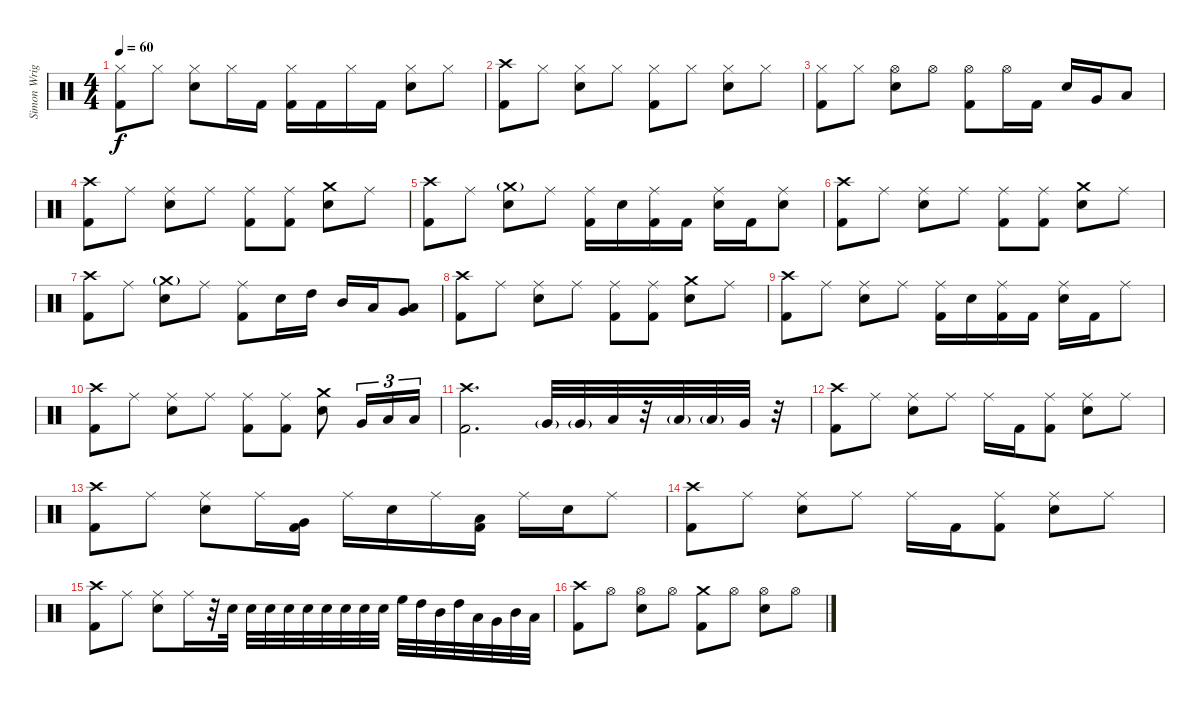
\track ("Simon Wright" "Simon Wrig") {instrument percussion}
\staff {score}
\articulation defaults
\ts (4 4)
\tempo 60
\clef neutral
\ks c
("Hi-Hat (closed)" "Kick (hit) 2").8{dy f} "Hi-Hat (closed)".8 ("Hi-Hat (closed)" "Snare (hit) 2").8 "Hi-Hat (closed)".16 "Kick (hit) 2".16 ("Hi-Hat (closed)" "Kick (hit) 2").16 "Kick (hit) 2".16 "Hi-Hat (closed)".16 "Kick (hit) 2".16 ("Hi-Hat (closed)" "Snare (hit) 2").8 "Hi-Hat (closed)".8 |
("Crash high (hit)" "Kick (hit) 2").8 "Hi-Hat (closed)".8 ("Hi-Hat (closed)" "Snare (hit) 2").8 "Hi-Hat (closed)".8 ("Hi-Hat (closed)" "Kick (hit) 2").8 "Hi-Hat (closed)".8 ("Hi-Hat (closed)" "Snare (hit) 2").8 "Hi-Hat (closed)".8 |
("Hi-Hat (closed)" "Kick (hit) 2").8 "Hi-Hat (closed)".8 ("Hi-Hat (open)" "Snare (hit) 2").8 "Hi-Hat (open)".8 ("Hi-Hat (open)" "Kick (hit) 2").8 "Hi-Hat (open)".16 "Kick (hit) 2".16 "Snare (hit) 2".16 "Very Low Tom (hit)".16 "Low Floor Tom (hit)".8 |
("Crash high (hit)" "Kick (hit) 2").8 "Ride (middle)".8 ("Ride (middle)" "Snare (hit) 2").8 "Ride (middle)".8 ("Ride (middle)" "Kick (hit) 2").8 ("Ride (middle)" "Kick (hit) 2").8 ("Crash medium (hit)" "Snare (hit) 2").8 "Ride (middle)".8 |
("Crash high (hit)" "Kick (hit) 2").8 "Ride (middle)".8 ("Crash medium (hit)"{g} "Snare (hit) 2").8 "Ride (middle)".8 ("Ride (middle)" "Kick (hit) 2").16 "Snare (hit) 2".16 ("Ride (middle)" "Kick (hit) 2").16 "Kick (hit) 2".16 ("Ride (middle)" "Snare (hit) 2").16 "Kick (hit) 2".16 ("Ride (middle)" "Snare (hit) 2").8 |
("Crash high (hit)" "Kick (hit) 2").8 "Ride (middle)".8 ("Ride (middle)" "Snare (hit) 2").8 "Ride (middle)".8 ("Ride (middle)" "Kick (hit) 2").8 ("Ride (middle)" "Kick (hit) 2").8 ("Crash medium (hit)" "Snare (hit) 2").8 "Ride (middle)".8 |
("Crash high (hit)" "Kick (hit) 2").8 "Ride (middle)".8 ("Crash medium (hit)"{g} "Snare (hit) 2").8 "Ride (middle)".8 ("Ride (middle)" "Kick (hit) 2").8 "Snare (hit) 2".16 "High Tom (hit)".16 "Mid Tom (hit)".16 "Low Tom (hit)".16 ("Very Low Tom (hit)" "Low Floor Tom (hit)").8 |
("Crash high (hit)" "Kick (hit) 2").8 "Ride (middle)".8 ("Ride (middle)" "Snare (hit) 2").8 "Ride (middle)".8 ("Ride (middle)" "Kick (hit) 2").8 ("Ride (middle)" "Kick (hit) 2").8 ("Crash medium (hit)" "Snare (hit) 2").8 "Ride (middle)".8 |
("Crash high (hit)" "Kick (hit) 2").8 "Ride (middle)".8 ("Ride (middle)" "Snare (hit) 2").8 "Ride (middle)".8 ("Ride (middle)" "Kick (hit) 2").16 "Snare (hit) 2".16 ("Ride (middle)" "Kick (hit) 2").16 "Kick (hit) 2".16 ("Ride (middle)" "Snare (hit) 2").16 "Kick (hit) 2".16 "Ride (middle)".8 |
("Crash high (hit)" "Kick (hit) 2").8 "Ride (middle)".8 ("Ride (middle)" "Snare (hit) 2").8 "Ride (middle)".8 ("Ride (middle)" "Kick (hit) 2").8 ("Ride (middle)" "Kick (hit) 2").8 ("Crash medium (hit)" "Snare (hit) 2").8 "Very Low Tom (hit)".16{tu (3 2)} "Low Tom (hit)".16{tu (3 2)} "Low Floor Tom (hit)".16{tu (3 2)} |
("Crash high (hit)" "Kick (hit) 2").2{d} "Very Low Tom (hit)"{g}.32 "Very Low Tom (hit)"{g}.32 "Low Tom (hit)".32 r.32 "Low Floor Tom (hit)"{g}.32 "Low Floor Tom (hit)"{g}.32 "Very Low Tom (hit)".32 r.32 |
("Crash high (hit)" "Kick (hit) 2").8 "Ride (middle)".8 ("Ride (middle)" "Snare (hit) 2").8 "Ride (middle)".8 "Ride (middle)".16 "Kick (hit) 2".16 ("Ride (middle)" "Kick (hit) 2").8 ("Ride (middle)" "Snare (hit) 2").8 "Ride (middle)".8 |
("Crash high (hit)" "Kick (hit) 2").8 "Ride (middle)".8 ("Ride (middle)" "Snare (hit) 2").8 "Ride (middle)".16 ("Very Low Tom (hit)" "Kick (hit) 2").16 "Ride (middle)".16 "Snare (hit) 2".16 "Ride (middle)".16 ("Low Tom (hit)" "Kick (hit) 2").16 "Ride (middle)".16 "Snare (hit) 2".16 "Ride (middle)".8 |
("Crash high (hit)" "Kick (hit) 2").8 "Ride (middle)".8 ("Ride (middle)" "Snare (hit) 2").8 "Ride (middle)".8 "Ride (middle)".16 "Kick (hit) 2".16 ("Ride (middle)" "Kick (hit) 2").8 ("Ride (middle)" "Snare (hit) 2").8 "Ride (middle)".8 |
("Crash high (hit)" "Kick (hit) 2").8 "Ride (middle)".8 ("Ride (middle)" "Snare (hit) 2").8 "Ride (middle)".16 r.32 "Snare (hit) 2".32 "Snare (hit) 2".32 "Snare (hit) 2".32 "Snare (hit) 2".32 "Snare (hit) 2".32 "Snare (hit) 2".32 "Snare (hit) 2".32 "Snare (hit) 2".32 "Snare (hit) 2".32 "High Floor Tom (hit)".32 "High Tom (hit)".32 "Mid Tom (hit)".32 "High Tom (hit)".32 "Low Tom (hit)".32 "Very Low Tom (hit)".32 "Mid Tom (hit)".32 "Low Floor Tom (hit)".32 |
("Crash high (hit)" "Kick (hit) 2").8 "Hi-Hat (open)".8 ("Hi-Hat (open)" "Snare (hit) 2").8 "Hi-Hat (open)".8 ("Crash medium (hit)" "Kick (hit) 2").8 "Hi-Hat (open)".8 ("Hi-Hat (open)" "Snare (hit) 2").8 "Hi-Hat (open)".8
